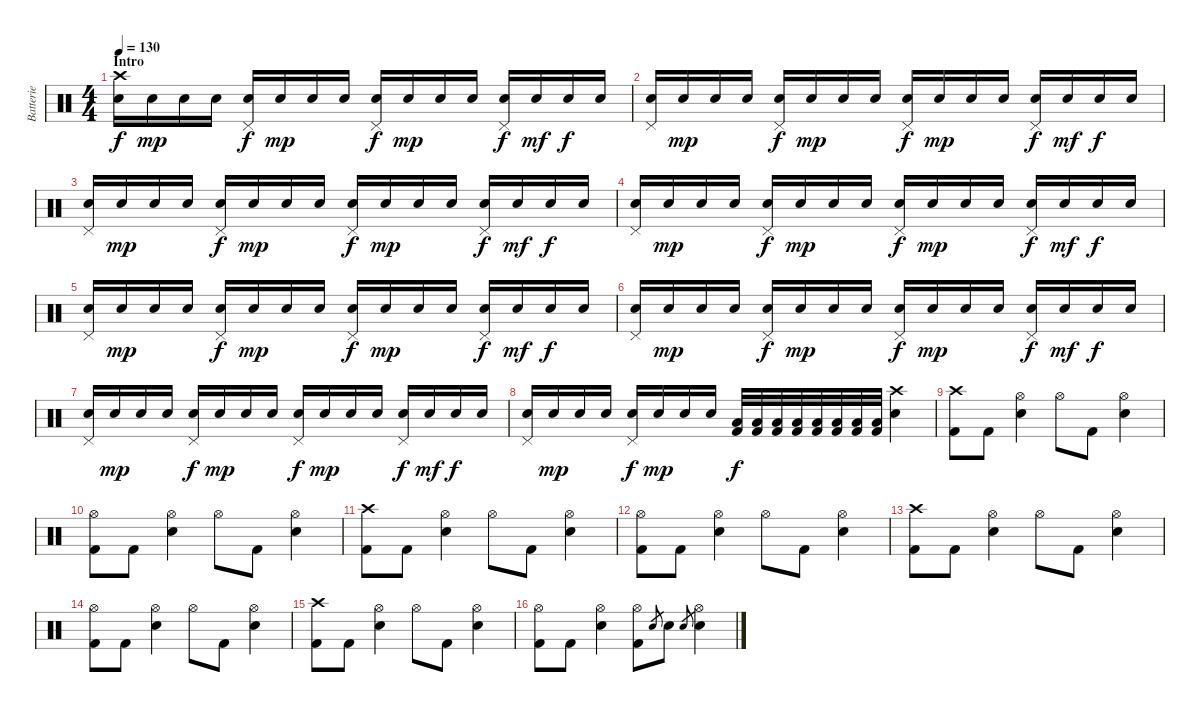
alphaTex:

\track ("Batterie" "Batterie") {instrument percussion}
\staff {score}
\articulation defaults
\ts (4 4)
\section ("" "Intro")
\tempo 130
\clef neutral
\ks c
("Crash high (hit)" "Snare (hit) 2").16{dy f volume 10} "Snare (hit) 2".16{dy mp} "Snare (hit) 2".16 "Snare (hit) 2".16 ("Pedal Hi-Hat (hit)" "Snare (hit) 2").16{dy f} "Snare (hit) 2".16{dy mp} "Snare (hit) 2".16 "Snare (hit) 2".16 ("Pedal Hi-Hat (hit)" "Snare (hit) 2").16{dy f} "Snare (hit) 2".16{dy mp} "Snare (hit) 2".16 "Snare (hit) 2".16 ("Pedal Hi-Hat (hit)" "Snare (hit) 2").16{dy f} "Snare (hit) 2".16{dy mf} "Snare (hit) 2".16{dy f} "Snare (hit) 2".16 |
("Pedal Hi-Hat (hit)" "Snare (hit) 2").16 "Snare (hit) 2".16{dy mp} "Snare (hit) 2".16 "Snare (hit) 2".16 ("Pedal Hi-Hat (hit)" "Snare (hit) 2").16{dy f} "Snare (hit) 2".16{dy mp} "Snare (hit) 2".16 "Snare (hit) 2".16 ("Pedal Hi-Hat (hit)" "Snare (hit) 2").16{dy f} "Snare (hit) 2".16{dy mp} "Snare (hit) 2".16 "Snare (hit) 2".16 ("Pedal Hi-Hat (hit)" "Snare (hit) 2").16{dy f} "Snare (hit) 2".16{dy mf} "Snare (hit) 2".16{dy f} "Snare (hit) 2".16 |
("Pedal Hi-Hat (hit)" "Snare (hit) 2").16{volume 11} "Snare (hit) 2".16{dy mp} "Snare (hit) 2".16 "Snare (hit) 2".16 ("Pedal Hi-Hat (hit)" "Snare (hit) 2").16{dy f} "Snare (hit) 2".16{dy mp} "Snare (hit) 2".16 "Snare (hit) 2".16 ("Pedal Hi-Hat (hit)" "Snare (hit) 2").16{dy f} "Snare (hit) 2".16{dy mp} "Snare (hit) 2".16 "Snare (hit) 2".16 ("Pedal Hi-Hat (hit)" "Snare (hit) 2").16{dy f} "Snare (hit) 2".16{dy mf} "Snare (hit) 2".16{dy f} "Snare (hit) 2".16 |
("Pedal Hi-Hat (hit)" "Snare (hit) 2").16 "Snare (hit) 2".16{dy mp} "Snare (hit) 2".16 "Snare (hit) 2".16 ("Pedal Hi-Hat (hit)" "Snare (hit) 2").16{dy f} "Snare (hit) 2".16{dy mp} "Snare (hit) 2".16 "Snare (hit) 2".16 ("Pedal Hi-Hat (hit)" "Snare (hit) 2").16{dy f} "Snare (hit) 2".16{dy mp} "Snare (hit) 2".16 "Snare (hit) 2".16 ("Pedal Hi-Hat (hit)" "Snare (hit) 2").16{dy f} "Snare (hit) 2".16{dy mf} "Snare (hit) 2".16{dy f} "Snare (hit) 2".16 |
("Pedal Hi-Hat (hit)" "Snare (hit) 2").16{volume 12} "Snare (hit) 2".16{dy mp} "Snare (hit) 2".16 "Snare (hit) 2".16 ("Pedal Hi-Hat (hit)" "Snare (hit) 2").16{dy f} "Snare (hit) 2".16{dy mp} "Snare (hit) 2".16 "Snare (hit) 2".16 ("Pedal Hi-Hat (hit)" "Snare (hit) 2").16{dy f} "Snare (hit) 2".16{dy mp} "Snare (hit) 2".16 "Snare (hit) 2".16 ("Pedal Hi-Hat (hit)" "Snare (hit) 2").16{dy f} "Snare (hit) 2".16{dy mf} "Snare (hit) 2".16{dy f} "Snare (hit) 2".16 |
("Pedal Hi-Hat (hit)" "Snare (hit) 2").16 "Snare (hit) 2".16{dy mp} "Snare (hit) 2".16 "Snare (hit) 2".16 ("Pedal Hi-Hat (hit)" "Snare (hit) 2").16{dy f} "Snare (hit) 2".16{dy mp} "Snare (hit) 2".16 "Snare (hit) 2".16 ("Pedal Hi-Hat (hit)" "Snare (hit) 2").16{dy f} "Snare (hit) 2".16{dy mp} "Snare (hit) 2".16 "Snare (hit) 2".16 ("Pedal Hi-Hat (hit)" "Snare (hit) 2").16{dy f} "Snare (hit) 2".16{dy mf} "Snare (hit) 2".16{dy f} "Snare (hit) 2".16 |
("Pedal Hi-Hat (hit)" "Snare (hit) 2").16{volume 13} "Snare (hit) 2".16{dy mp} "Snare (hit) 2".16 "Snare (hit) 2".16 ("Pedal Hi-Hat (hit)" "Snare (hit) 2").16{dy f} "Snare (hit) 2".16{dy mp} "Snare (hit) 2".16 "Snare (hit) 2".16 ("Pedal Hi-Hat (hit)" "Snare (hit) 2").16{dy f} "Snare (hit) 2".16{dy mp} "Snare (hit) 2".16 "Snare (hit) 2".16 ("Pedal Hi-Hat (hit)" "Snare (hit) 2").16{dy f} "Snare (hit) 2".16{dy mf} "Snare (hit) 2".16{dy f} "Snare (hit) 2".16 |
("Pedal Hi-Hat (hit)" "Snare (hit) 2").16 "Snare (hit) 2".16{dy mp} "Snare (hit) 2".16 "Snare (hit) 2".16 ("Pedal Hi-Hat (hit)" "Snare (hit) 2").16{dy f} "Snare (hit) 2".16{dy mp} "Snare (hit) 2".16 "Snare (hit) 2".16 ("Low Floor Tom (hit)" "Kick (hit) 2").32{dy f} ("Low Floor Tom (hit)" "Kick (hit) 2").32 ("Low Floor Tom (hit)" "Kick (hit) 2").32 ("Low Floor Tom (hit)" "Kick (hit) 2").32 ("Low Floor Tom (hit)" "Kick (hit) 2").32 ("Low Floor Tom (hit)" "Kick (hit) 2").32 ("Low Floor Tom (hit)" "Kick (hit) 2").32 ("Low Floor Tom (hit)" "Kick (hit) 2").32 ("Crash high (hit)" "Snare (hit) 2").4 |
("Crash high (hit)" "Kick (hit) 2").8 "Kick (hit) 2".8 ("Hi-Hat (open)" "Snare (hit) 2").4 "Hi-Hat (open)".8 "Kick (hit) 2".8 ("Hi-Hat (open)" "Snare (hit) 2").4 |
("Hi-Hat (open)" "Kick (hit) 2").8 "Kick (hit) 2".8 ("Hi-Hat (open)" "Snare (hit) 2").4 "Hi-Hat (open)".8 "Kick (hit) 2".8 ("Hi-Hat (open)" "Snare (hit) 2").4 |
("Crash high (hit)" "Kick (hit) 2").8 "Kick (hit) 2".8 ("Hi-Hat (open)" "Snare (hit) 2").4 "Hi-Hat (open)".8 "Kick (hit) 2".8 ("Hi-Hat (open)" "Snare (hit) 2").4 |
("Hi-Hat (open)" "Kick (hit) 2").8 "Kick (hit) 2".8 ("Hi-Hat (open)" "Snare (hit) 2").4 "Hi-Hat (open)".8 "Kick (hit) 2".8 ("Hi-Hat (open)" "Snare (hit) 2").4 |
("Crash high (hit)" "Kick (hit) 2").8 "Kick (hit) 2".8 ("Hi-Hat (open)" "Snare (hit) 2").4 "Hi-Hat (open)".8 "Kick (hit) 2".8 ("Hi-Hat (open)" "Snare (hit) 2").4 |
("Hi-Hat (open)" "Kick (hit) 2").8 "Kick (hit) 2".8 ("Hi-Hat (open)" "Snare (hit) 2").4 "Hi-Hat (open)".8 "Kick (hit) 2".8 ("Hi-Hat (open)" "Snare (hit) 2").4 |
("Crash high (hit)" "Kick (hit) 2").8 "Kick (hit) 2".8 ("Hi-Hat (open)" "Snare (hit) 2").4 "Hi-Hat (open)".8 "Kick (hit) 2".8 ("Hi-Hat (open)" "Snare (hit) 2").4 |
("Hi-Hat (open)" "Kick (hit) 2").8 "Kick (hit) 2".8 ("Hi-Hat (open)" "Snare (hit) 2").4 ("Hi-Hat (open)" "Kick (hit) 2").8 "Snare (hit) 2".8{gr} "Snare (hit) 2".8 "Snare (hit) 2".8{gr} ("Hi-Hat (open)" "Snare (hit) 2").4
